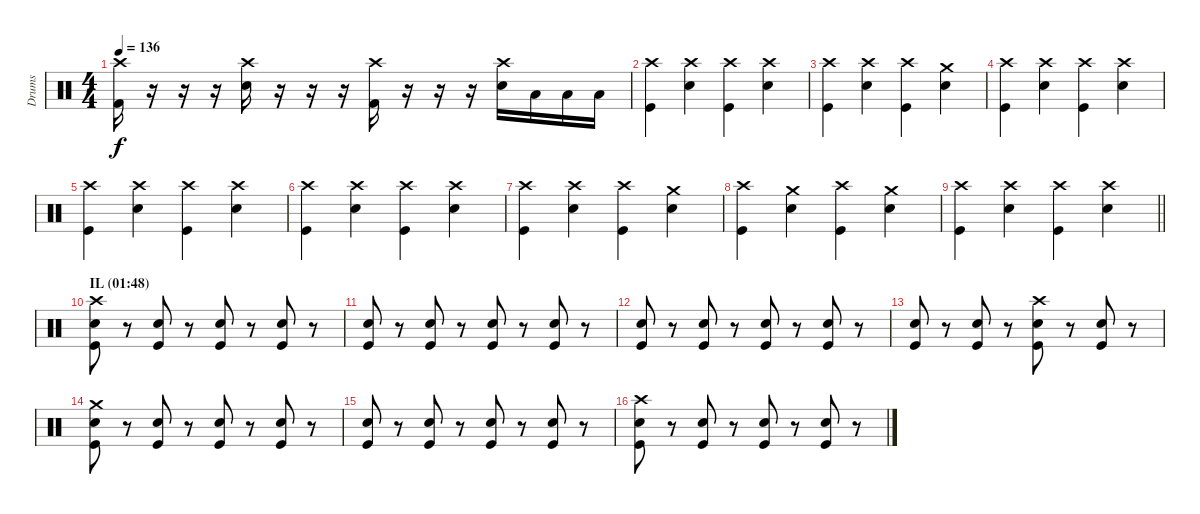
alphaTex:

\track ("Drums" "Drums") {instrument percussion}
\staff {score}
\articulation defaults
\ts (4 4)
\tempo 136
\clef neutral
\ks c
("Crash high (hit)" "Kick (hit) 2").16{dy f} r.16 r.16 r.16 ("Crash high (hit)" "Electric Snare (hit)").16 r.16 r.16 r.16 ("Crash high (hit)" "Kick (hit) 2").16 r.16 r.16 r.16 ("Crash high (hit)" "Electric Snare (hit)").16 "Low Floor Tom (hit)".16 "Low Floor Tom (hit)".16 "Low Floor Tom (hit)".16 |
("Crash high (hit)" "Kick (hit)").4 ("Crash high (hit)" "Electric Snare (hit)").4 ("Crash high (hit)" "Kick (hit)").4 ("Crash high (hit)" "Electric Snare (hit)").4 |
("Crash high (hit)" "Kick (hit)").4 ("Crash high (hit)" "Electric Snare (hit)").4 ("Crash high (hit)" "Kick (hit)").4 ("Crash medium (hit)" "Electric Snare (hit)").4 |
("Crash high (hit)" "Kick (hit)").4 ("Crash high (hit)" "Electric Snare (hit)").4 ("Crash high (hit)" "Kick (hit)").4 ("Crash high (hit)" "Electric Snare (hit)").4 |
("Crash high (hit)" "Kick (hit)").4 ("Crash high (hit)" "Electric Snare (hit)").4 ("Crash high (hit)" "Kick (hit)").4 ("Crash high (hit)" "Electric Snare (hit)").4 |
("Crash high (hit)" "Kick (hit)").4 ("Crash high (hit)" "Electric Snare (hit)").4 ("Crash high (hit)" "Kick (hit)").4 ("Crash high (hit)" "Electric Snare (hit)").4 |
("Crash high (hit)" "Kick (hit)").4 ("Crash high (hit)" "Electric Snare (hit)").4 ("Crash high (hit)" "Kick (hit)").4 ("Crash medium (hit)" "Electric Snare (hit)").4 |
("Crash high (hit)" "Kick (hit)").4 ("Crash medium (hit)" "Electric Snare (hit)").4 ("Crash high (hit)" "Kick (hit)").4 ("Crash medium (hit)" "Electric Snare (hit)").4 |
\barLineRight lightlight
("Crash high (hit)" "Kick (hit)").4 ("Crash high (hit)" "Electric Snare (hit)").4 ("Crash high (hit)" "Kick (hit)").4 ("Crash high (hit)" "Electric Snare (hit)").4 |
\section ("" "IL (01:48)")
("Crash high (hit)" "Electric Snare (hit)" "Kick (hit)").8 r.8 ("Electric Snare (hit)" "Kick (hit)").8 r.8 ("Electric Snare (hit)" "Kick (hit)").8 r.8 ("Electric Snare (hit)" "Kick (hit)").8 r.8 |
("Electric Snare (hit)" "Kick (hit)").8 r.8 ("Electric Snare (hit)" "Kick (hit)").8 r.8 ("Electric Snare (hit)" "Kick (hit)").8 r.8 ("Electric Snare (hit)" "Kick (hit)").8 r.8 |
("Electric Snare (hit)" "Kick (hit)").8 r.8 ("Electric Snare (hit)" "Kick (hit)").8 r.8 ("Electric Snare (hit)" "Kick (hit)").8 r.8 ("Electric Snare (hit)" "Kick (hit)").8 r.8 |
("Electric Snare (hit)" "Kick (hit)").8 r.8 ("Electric Snare (hit)" "Kick (hit)").8 r.8 ("Crash high (hit)" "Electric Snare (hit)" "Kick (hit)").8 r.8 ("Electric Snare (hit)" "Kick (hit)").8 r.8 |
("Crash medium (hit)" "Electric Snare (hit)" "Kick (hit)").8 r.8 ("Electric Snare (hit)" "Kick (hit)").8 r.8 ("Electric Snare (hit)" "Kick (hit)").8 r.8 ("Electric Snare (hit)" "Kick (hit)").8 r.8 |
("Electric Snare (hit)" "Kick (hit)").8 r.8 ("Electric Snare (hit)" "Kick (hit)").8 r.8 ("Electric Snare (hit)" "Kick (hit)").8 r.8 ("Electric Snare (hit)" "Kick (hit)").8 r.8 |
("Crash high (hit)" "Electric Snare (hit)" "Kick (hit)").8 r.8 ("Electric Snare (hit)" "Kick (hit)").8 r.8 ("Electric Snare (hit)" "Kick (hit)").8 r.8 ("Electric Snare (hit)" "Kick (hit)").8 r.8
